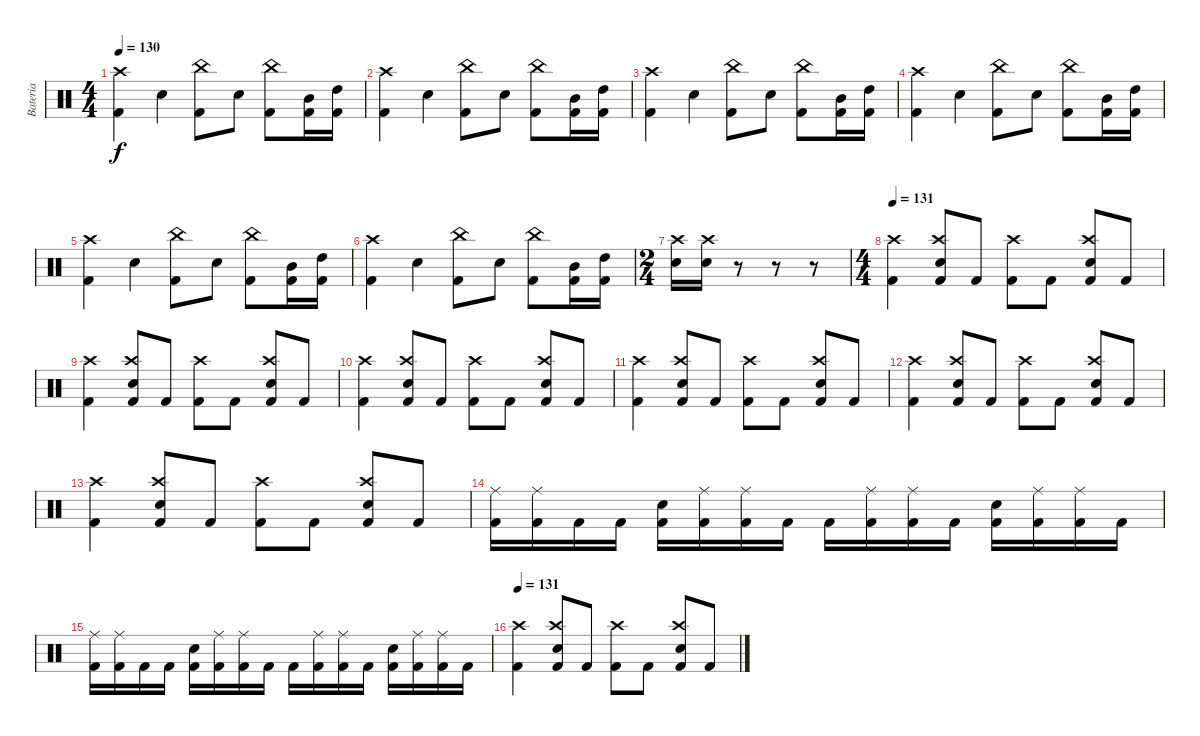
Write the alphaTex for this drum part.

\track ("Bateria" "Bateria") {instrument percussion}
\staff {score}
\articulation defaults
\ts (4 4)
\tempo 130
\clef neutral
\ks c
("Kick (hit) 2" "Crash high (hit)").4{dy f} "Electric Snare (hit)".4 ("China (hit)" "Kick (hit) 2").8 "Electric Snare (hit)".8 ("China (hit)" "Kick (hit) 2").8 ("Mid Tom (hit)" "Kick (hit) 2").16 ("High Tom (hit)" "Kick (hit) 2").16 |
("Kick (hit) 2" "Crash high (hit)").4 "Electric Snare (hit)".4 ("China (hit)" "Kick (hit) 2").8 "Electric Snare (hit)".8 ("China (hit)" "Kick (hit) 2").8 ("Mid Tom (hit)" "Kick (hit) 2").16 ("High Tom (hit)" "Kick (hit) 2").16 |
("Kick (hit) 2" "Crash high (hit)").4 "Electric Snare (hit)".4 ("China (hit)" "Kick (hit) 2").8 "Electric Snare (hit)".8 ("China (hit)" "Kick (hit) 2").8 ("Mid Tom (hit)" "Kick (hit) 2").16 ("High Tom (hit)" "Kick (hit) 2").16 |
("Kick (hit) 2" "Crash high (hit)").4 "Electric Snare (hit)".4 ("China (hit)" "Kick (hit) 2").8 "Electric Snare (hit)".8 ("China (hit)" "Kick (hit) 2").8 ("Mid Tom (hit)" "Kick (hit) 2").16 ("High Tom (hit)" "Kick (hit) 2").16 |
("Kick (hit) 2" "Crash high (hit)").4 "Electric Snare (hit)".4 ("China (hit)" "Kick (hit) 2").8 "Electric Snare (hit)".8 ("China (hit)" "Kick (hit) 2").8 ("Mid Tom (hit)" "Kick (hit) 2").16 ("High Tom (hit)" "Kick (hit) 2").16 |
("Kick (hit) 2" "Crash high (hit)").4 "Electric Snare (hit)".4 ("China (hit)" "Kick (hit) 2").8 "Electric Snare (hit)".8 ("China (hit)" "Kick (hit) 2").8 ("Mid Tom (hit)" "Kick (hit) 2").16 ("High Tom (hit)" "Kick (hit) 2").16 |
\ts (2 4)
("Electric Snare (hit)" "Crash high (hit)").16 ("Electric Snare (hit)" "Crash high (hit)").16 r.8 r.8 r.8 |
\ts (4 4)
\tempo 131
("Crash high (hit)" "Kick (hit) 2").4 ("Crash high (hit)" "Electric Snare (hit)" "Kick (hit) 2").8 "Kick (hit) 2".8 ("Crash high (hit)" "Kick (hit) 2").8 "Kick (hit) 2".8 ("Crash high (hit)" "Electric Snare (hit)" "Kick (hit) 2").8 "Kick (hit) 2".8 |
("Crash high (hit)" "Kick (hit) 2").4 ("Crash high (hit)" "Electric Snare (hit)" "Kick (hit) 2").8 "Kick (hit) 2".8 ("Crash high (hit)" "Kick (hit) 2").8 "Kick (hit) 2".8 ("Crash high (hit)" "Electric Snare (hit)" "Kick (hit) 2").8 "Kick (hit) 2".8 |
("Crash high (hit)" "Kick (hit) 2").4 ("Crash high (hit)" "Electric Snare (hit)" "Kick (hit) 2").8 "Kick (hit) 2".8 ("Crash high (hit)" "Kick (hit) 2").8 "Kick (hit) 2".8 ("Crash high (hit)" "Electric Snare (hit)" "Kick (hit) 2").8 "Kick (hit) 2".8 |
("Crash high (hit)" "Kick (hit) 2").4 ("Crash high (hit)" "Electric Snare (hit)" "Kick (hit) 2").8 "Kick (hit) 2".8 ("Crash high (hit)" "Kick (hit) 2").8 "Kick (hit) 2".8 ("Crash high (hit)" "Electric Snare (hit)" "Kick (hit) 2").8 "Kick (hit) 2".8 |
("Crash high (hit)" "Kick (hit) 2").4 ("Crash high (hit)" "Electric Snare (hit)" "Kick (hit) 2").8 "Kick (hit) 2".8 ("Crash high (hit)" "Kick (hit) 2").8 "Kick (hit) 2".8 ("Crash high (hit)" "Electric Snare (hit)" "Kick (hit) 2").8 "Kick (hit) 2".8 |
("Crash high (hit)" "Kick (hit) 2").4 ("Crash high (hit)" "Electric Snare (hit)" "Kick (hit) 2").8 "Kick (hit) 2".8 ("Crash high (hit)" "Kick (hit) 2").8 "Kick (hit) 2".8 ("Crash high (hit)" "Electric Snare (hit)" "Kick (hit) 2").8 "Kick (hit) 2".8 |
("Ride (middle)" "Kick (hit) 2").16 ("Ride (middle)" "Kick (hit) 2").16 "Kick (hit) 2".16 "Kick (hit) 2".16 ("Electric Snare (hit)" "Kick (hit) 2").16 ("Ride (middle)" "Kick (hit) 2").16 ("Ride (middle)" "Kick (hit) 2").16 "Kick (hit) 2".16 "Kick (hit) 2".16 ("Ride (middle)" "Kick (hit) 2").16 ("Ride (middle)" "Kick (hit) 2").16 "Kick (hit) 2".16 ("Electric Snare (hit)" "Kick (hit) 2").16 ("Ride (middle)" "Kick (hit) 2").16 ("Ride (middle)" "Kick (hit) 2").16 "Kick (hit) 2".16 |
("Ride (middle)" "Kick (hit) 2").16 ("Ride (middle)" "Kick (hit) 2").16 "Kick (hit) 2".16 "Kick (hit) 2".16 ("Electric Snare (hit)" "Kick (hit) 2").16 ("Ride (middle)" "Kick (hit) 2").16 ("Ride (middle)" "Kick (hit) 2").16 "Kick (hit) 2".16 "Kick (hit) 2".16 ("Ride (middle)" "Kick (hit) 2").16 ("Ride (middle)" "Kick (hit) 2").16 "Kick (hit) 2".16 ("Electric Snare (hit)" "Kick (hit) 2").16 ("Ride (middle)" "Kick (hit) 2").16 ("Ride (middle)" "Kick (hit) 2").16 "Kick (hit) 2".16 |
\tempo 131
("Crash high (hit)" "Kick (hit) 2").4 ("Crash high (hit)" "Electric Snare (hit)" "Kick (hit) 2").8 "Kick (hit) 2".8 ("Crash high (hit)" "Kick (hit) 2").8 "Kick (hit) 2".8 ("Crash high (hit)" "Electric Snare (hit)" "Kick (hit) 2").8 "Kick (hit) 2".8
